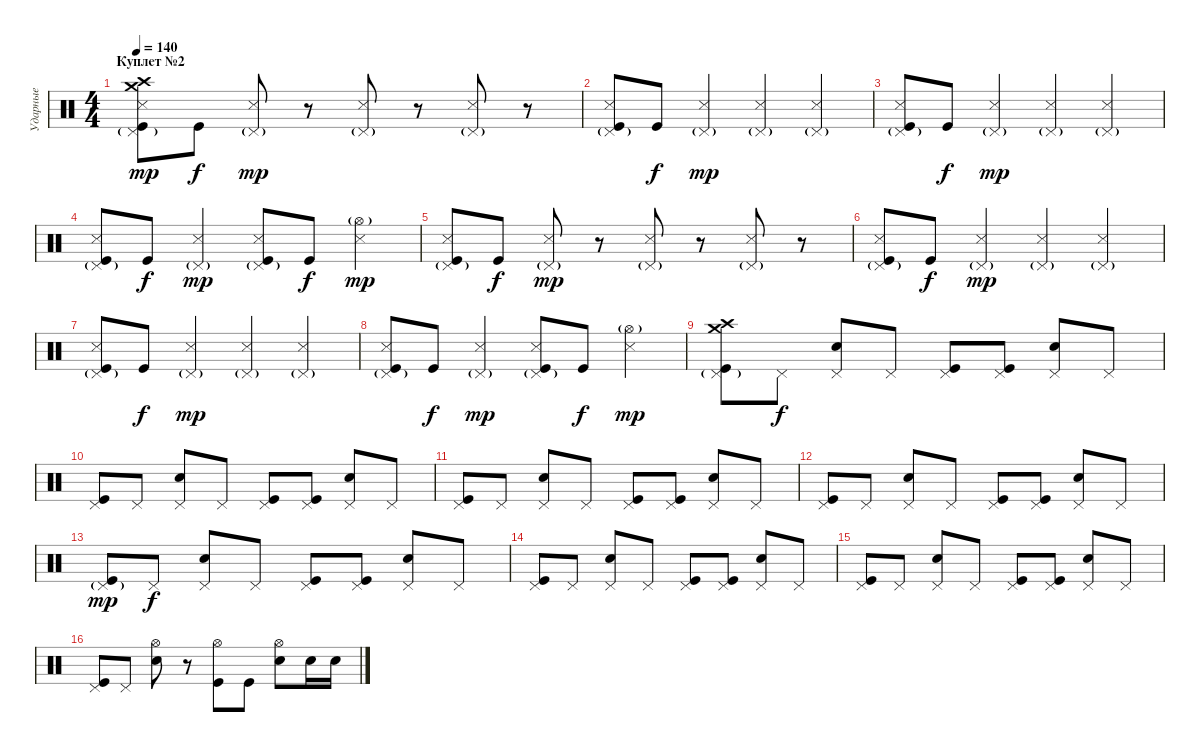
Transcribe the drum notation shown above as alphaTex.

\track ("Ударные" "Ударные") {instrument percussion}
\staff {score}
\articulation defaults
\ts (4 4)
\section ("" "Куплет №2")
\tempo 140
\clef neutral
\ks c
("Crash high (hit)" "Crash medium (hit)" "Pedal Hi-Hat (hit)"{g} "Snare (side stick) 3" "Kick (hit)").8{dy mp} "Kick (hit)".8{dy f} ("Pedal Hi-Hat (hit)"{g} "Snare (side stick) 3").8{dy mp} r.8 ("Pedal Hi-Hat (hit)"{g} "Snare (side stick) 3").8 r.8 ("Pedal Hi-Hat (hit)"{g} "Snare (side stick) 3").8 r.8 |
("Pedal Hi-Hat (hit)"{g} "Kick (hit)" "Snare (side stick) 3").8 "Kick (hit)".8{dy f} ("Pedal Hi-Hat (hit)"{g} "Snare (side stick) 3").4{dy mp} ("Pedal Hi-Hat (hit)"{g} "Snare (side stick) 3").4 ("Pedal Hi-Hat (hit)"{g} "Snare (side stick) 3").4 |
("Pedal Hi-Hat (hit)"{g} "Snare (side stick) 3" "Kick (hit)").8 "Kick (hit)".8{dy f} ("Pedal Hi-Hat (hit)"{g} "Snare (side stick) 3").4{dy mp} ("Pedal Hi-Hat (hit)"{g} "Snare (side stick) 3").4 ("Pedal Hi-Hat (hit)"{g} "Snare (side stick) 3").4 |
("Pedal Hi-Hat (hit)"{g} "Kick (hit)" "Snare (side stick) 3").8 "Kick (hit)".8{dy f} ("Pedal Hi-Hat (hit)"{g} "Snare (side stick) 3").4{dy mp} ("Pedal Hi-Hat (hit)"{g} "Kick (hit)" "Snare (side stick) 3").8 "Kick (hit)".8{dy f} ("Hi-Hat (open)"{g} "Snare (side stick) 3").4{dy mp} |
("Pedal Hi-Hat (hit)"{g} "Snare (side stick) 3" "Kick (hit)").8 "Kick (hit)".8{dy f} ("Pedal Hi-Hat (hit)"{g} "Snare (side stick) 3").8{dy mp} r.8 ("Pedal Hi-Hat (hit)"{g} "Snare (side stick) 3").8 r.8 ("Pedal Hi-Hat (hit)"{g} "Snare (side stick) 3").8 r.8 |
("Pedal Hi-Hat (hit)"{g} "Kick (hit)" "Snare (side stick) 3").8 "Kick (hit)".8{dy f} ("Pedal Hi-Hat (hit)"{g} "Snare (side stick) 3").4{dy mp} ("Pedal Hi-Hat (hit)"{g} "Snare (side stick) 3").4 ("Pedal Hi-Hat (hit)"{g} "Snare (side stick) 3").4 |
("Pedal Hi-Hat (hit)"{g} "Snare (side stick) 3" "Kick (hit)").8 "Kick (hit)".8{dy f} ("Pedal Hi-Hat (hit)"{g} "Snare (side stick) 3").4{dy mp} ("Pedal Hi-Hat (hit)"{g} "Snare (side stick) 3").4 ("Pedal Hi-Hat (hit)"{g} "Snare (side stick) 3").4 |
("Pedal Hi-Hat (hit)"{g} "Kick (hit)" "Snare (side stick) 3").8 "Kick (hit)".8{dy f} ("Pedal Hi-Hat (hit)"{g} "Snare (side stick) 3").4{dy mp} ("Pedal Hi-Hat (hit)"{g} "Kick (hit)" "Snare (side stick) 3").8 "Kick (hit)".8{dy f} ("Hi-Hat (open)"{g} "Snare (side stick) 3").4{dy mp} |
("Crash high (hit)" "Crash medium (hit)" "Pedal Hi-Hat (hit)"{g} "Kick (hit)").8 "Pedal Hi-Hat (hit)".8{dy f} ("Pedal Hi-Hat (hit)" "Electric Snare (hit)").8 "Pedal Hi-Hat (hit)".8 ("Pedal Hi-Hat (hit)" "Kick (hit)").8 ("Pedal Hi-Hat (hit)" "Kick (hit)").8 ("Pedal Hi-Hat (hit)" "Electric Snare (hit)").8 "Pedal Hi-Hat (hit)".8 |
("Pedal Hi-Hat (hit)" "Kick (hit)").8 "Pedal Hi-Hat (hit)".8 ("Pedal Hi-Hat (hit)" "Electric Snare (hit)").8 "Pedal Hi-Hat (hit)".8 ("Pedal Hi-Hat (hit)" "Kick (hit)").8 ("Pedal Hi-Hat (hit)" "Kick (hit)").8 ("Pedal Hi-Hat (hit)" "Electric Snare (hit)").8 "Pedal Hi-Hat (hit)".8 |
("Pedal Hi-Hat (hit)" "Kick (hit)").8 "Pedal Hi-Hat (hit)".8 ("Pedal Hi-Hat (hit)" "Electric Snare (hit)").8 "Pedal Hi-Hat (hit)".8 ("Pedal Hi-Hat (hit)" "Kick (hit)").8 ("Pedal Hi-Hat (hit)" "Kick (hit)").8 ("Pedal Hi-Hat (hit)" "Electric Snare (hit)").8 "Pedal Hi-Hat (hit)".8 |
("Pedal Hi-Hat (hit)" "Kick (hit)").8 "Pedal Hi-Hat (hit)".8 ("Pedal Hi-Hat (hit)" "Electric Snare (hit)").8 "Pedal Hi-Hat (hit)".8 ("Pedal Hi-Hat (hit)" "Kick (hit)").8 ("Pedal Hi-Hat (hit)" "Kick (hit)").8 ("Pedal Hi-Hat (hit)" "Electric Snare (hit)").8 "Pedal Hi-Hat (hit)".8 |
("Pedal Hi-Hat (hit)"{g} "Kick (hit)").8{dy mp} "Pedal Hi-Hat (hit)".8{dy f} ("Pedal Hi-Hat (hit)" "Electric Snare (hit)").8 "Pedal Hi-Hat (hit)".8 ("Pedal Hi-Hat (hit)" "Kick (hit)").8 ("Pedal Hi-Hat (hit)" "Kick (hit)").8 ("Pedal Hi-Hat (hit)" "Electric Snare (hit)").8 "Pedal Hi-Hat (hit)".8 |
("Pedal Hi-Hat (hit)" "Kick (hit)").8 "Pedal Hi-Hat (hit)".8 ("Pedal Hi-Hat (hit)" "Electric Snare (hit)").8 "Pedal Hi-Hat (hit)".8 ("Pedal Hi-Hat (hit)" "Kick (hit)").8 ("Pedal Hi-Hat (hit)" "Kick (hit)").8 ("Pedal Hi-Hat (hit)" "Electric Snare (hit)").8 "Pedal Hi-Hat (hit)".8 |
("Pedal Hi-Hat (hit)" "Kick (hit)").8 "Pedal Hi-Hat (hit)".8 ("Pedal Hi-Hat (hit)" "Electric Snare (hit)").8 "Pedal Hi-Hat (hit)".8 ("Pedal Hi-Hat (hit)" "Kick (hit)").8 ("Pedal Hi-Hat (hit)" "Kick (hit)").8 ("Pedal Hi-Hat (hit)" "Electric Snare (hit)").8 "Pedal Hi-Hat (hit)".8 |
("Pedal Hi-Hat (hit)" "Kick (hit)").8 "Pedal Hi-Hat (hit)".8 ("Hi-Hat (open)" "Electric Snare (hit)").8 r.8 ("Hi-Hat (open)" "Kick (hit)").8 "Kick (hit)".8 ("Hi-Hat (open)" "Electric Snare (hit)").8 "Electric Snare (hit)".16 "Electric Snare (hit)".16
